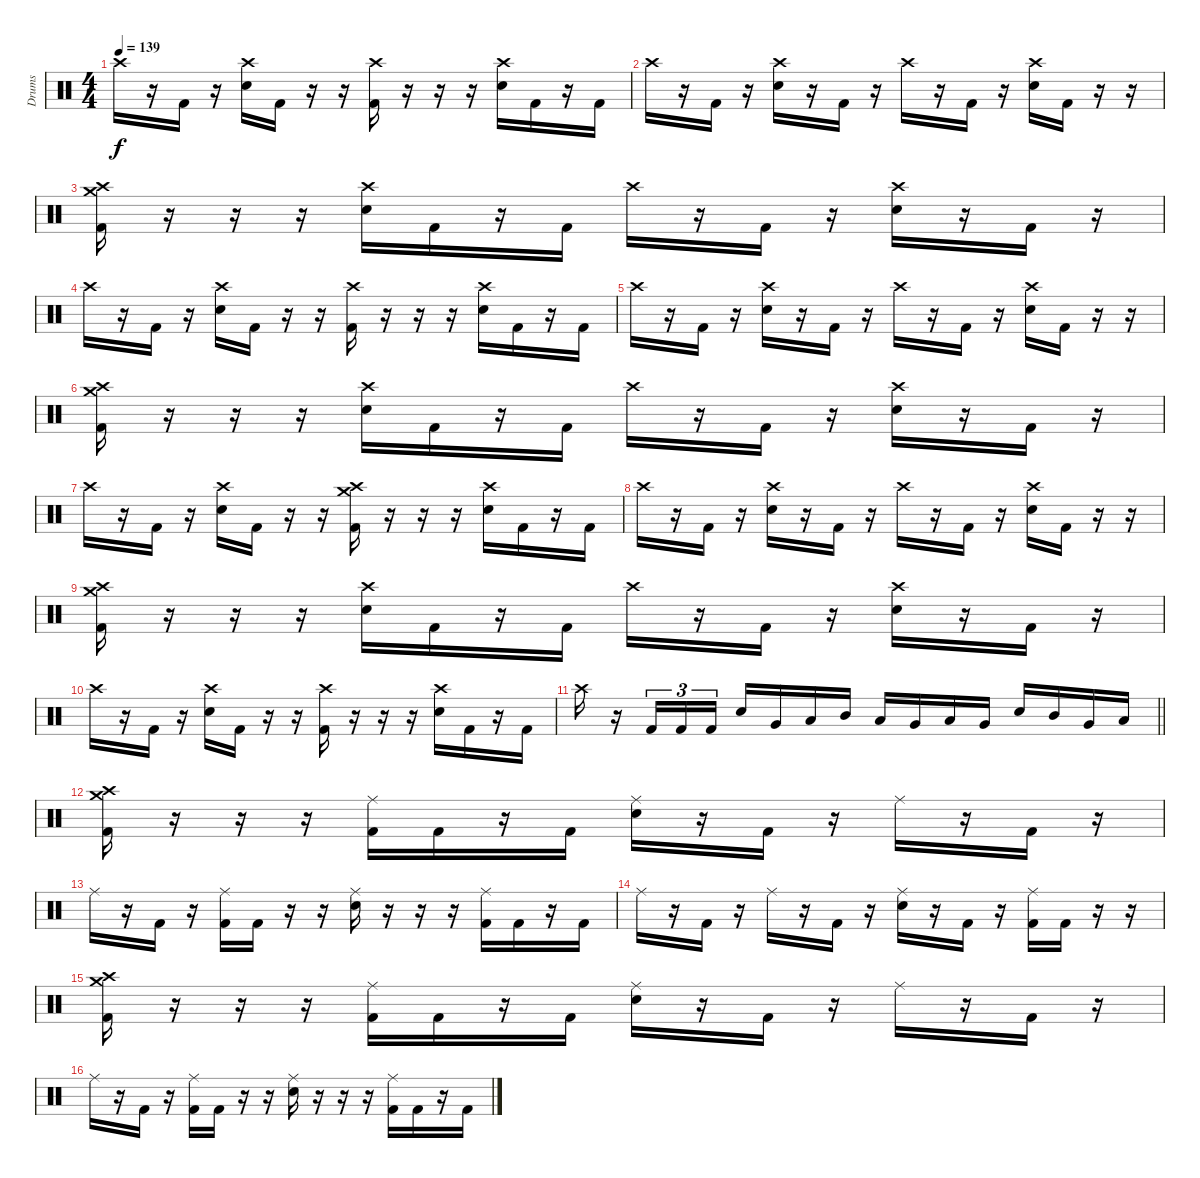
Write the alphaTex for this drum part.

\track ("Drums" "Drums") {instrument percussion}
\staff {score}
\articulation defaults
\ts (4 4)
\tempo 139
\clef neutral
\ks c "Crash high (hit)".16{dy f}
r.16 "Kick (hit) 2".16 r.16 ("Crash high (hit)" "Electric Snare (hit)").16 "Kick (hit) 2".16 r.16 r.16 ("Crash high (hit)" "Kick (hit) 2").16 r.16 r.16 r.16 ("Crash high (hit)" "Electric Snare (hit)").16 "Kick (hit) 2".16 r.16 "Kick (hit) 2".16 |
"Crash high (hit)".16 r.16 "Kick (hit) 2".16 r.16 ("Crash high (hit)" "Electric Snare (hit)").16 r.16 "Kick (hit) 2".16 r.16 "Crash high (hit)".16 r.16 "Kick (hit) 2".16 r.16 ("Crash high (hit)" "Electric Snare (hit)").16 "Kick (hit) 2".16 r.16 r.16 |
("Crash medium (hit)" "Crash high (hit)" "Kick (hit) 2").16 r.16 r.16 r.16 ("Crash high (hit)" "Electric Snare (hit)").16 "Kick (hit) 2".16 r.16 "Kick (hit) 2".16 "Crash high (hit)".16 r.16 "Kick (hit) 2".16 r.16 ("Crash high (hit)" "Electric Snare (hit)").16 r.16 "Kick (hit) 2".16 r.16 |
"Crash high (hit)".16 r.16 "Kick (hit) 2".16 r.16 ("Crash high (hit)" "Electric Snare (hit)").16 "Kick (hit) 2".16 r.16 r.16 ("Crash high (hit)" "Kick (hit) 2").16 r.16 r.16 r.16 ("Crash high (hit)" "Electric Snare (hit)").16 "Kick (hit) 2".16 r.16 "Kick (hit) 2".16 |
"Crash high (hit)".16 r.16 "Kick (hit) 2".16 r.16 ("Crash high (hit)" "Electric Snare (hit)").16 r.16 "Kick (hit) 2".16 r.16 "Crash high (hit)".16 r.16 "Kick (hit) 2".16 r.16 ("Crash high (hit)" "Electric Snare (hit)").16 "Kick (hit) 2".16 r.16 r.16 |
("Crash medium (hit)" "Crash high (hit)" "Kick (hit) 2").16 r.16 r.16 r.16 ("Crash high (hit)" "Electric Snare (hit)").16 "Kick (hit) 2".16 r.16 "Kick (hit) 2".16 "Crash high (hit)".16 r.16 "Kick (hit) 2".16 r.16 ("Crash high (hit)" "Electric Snare (hit)").16 r.16 "Kick (hit) 2".16 r.16 |
"Crash high (hit)".16 r.16 "Kick (hit) 2".16 r.16 ("Crash high (hit)" "Electric Snare (hit)").16 "Kick (hit) 2".16 r.16 r.16 ("Crash medium (hit)" "Crash high (hit)" "Kick (hit) 2").16 r.16 r.16 r.16 ("Crash high (hit)" "Electric Snare (hit)").16 "Kick (hit) 2".16 r.16 "Kick (hit) 2".16 |
"Crash high (hit)".16 r.16 "Kick (hit) 2".16 r.16 ("Crash high (hit)" "Electric Snare (hit)").16 r.16 "Kick (hit) 2".16 r.16 "Crash high (hit)".16 r.16 "Kick (hit) 2".16 r.16 ("Crash high (hit)" "Electric Snare (hit)").16 "Kick (hit) 2".16 r.16 r.16 |
("Crash medium (hit)" "Crash high (hit)" "Kick (hit) 2").16 r.16 r.16 r.16 ("Crash high (hit)" "Electric Snare (hit)").16 "Kick (hit) 2".16 r.16 "Kick (hit) 2".16 "Crash high (hit)".16 r.16 "Kick (hit) 2".16 r.16 ("Crash high (hit)" "Electric Snare (hit)").16 r.16 "Kick (hit) 2".16 r.16 |
"Crash high (hit)".16 r.16 "Kick (hit) 2".16 r.16 ("Crash high (hit)" "Electric Snare (hit)").16 "Kick (hit) 2".16 r.16 r.16 ("Crash high (hit)" "Kick (hit) 2").16 r.16 r.16 r.16 ("Crash high (hit)" "Electric Snare (hit)").16 "Kick (hit) 2".16 r.16 "Kick (hit) 2".16 |
\barLineRight lightlight "Crash high (hit)".16
r.16 "Kick (hit) 2".16{tu (3 2)} "Kick (hit) 2".16{tu (3 2)} "Kick (hit) 2".16{tu (3 2)} "Electric Snare (hit)".16 "Very Low Tom (hit)".16 "Low Tom (hit)".16 "Mid Tom (hit)".16 "Low Tom (hit)".16 "Very Low Tom (hit)".16 "Low Tom (hit)".16 "Very Low Tom (hit)".16 "Electric Snare (hit)".16 "Mid Tom (hit)".16 "Very Low Tom (hit)".16 "Low Tom (hit)".16 |
\section ("" "")
("Crash medium (hit)" "Crash high (hit)" "Kick (hit) 2").16 r.16 r.16 r.16 ("Ride (middle)" "Kick (hit) 2").16 "Kick (hit) 2".16 r.16 "Kick (hit) 2".16 ("Ride (middle)" "Electric Snare (hit)").16 r.16 "Kick (hit) 2".16 r.16 "Ride (middle)".16 r.16 "Kick (hit) 2".16 r.16 |
"Ride (middle)".16 r.16 "Kick (hit) 2".16 r.16 ("Ride (middle)" "Kick (hit) 2").16 "Kick (hit) 2".16 r.16 r.16 ("Ride (middle)" "Electric Snare (hit)").16 r.16 r.16 r.16 ("Ride (middle)" "Kick (hit) 2").16 "Kick (hit) 2".16 r.16 "Kick (hit) 2".16 |
"Ride (middle)".16 r.16 "Kick (hit) 2".16 r.16 "Ride (middle)".16 r.16 "Kick (hit) 2".16 r.16 ("Ride (middle)" "Electric Snare (hit)").16 r.16 "Kick (hit) 2".16 r.16 ("Ride (middle)" "Kick (hit) 2").16 "Kick (hit) 2".16 r.16 r.16 |
("Crash medium (hit)" "Crash high (hit)" "Kick (hit) 2").16 r.16 r.16 r.16 ("Ride (middle)" "Kick (hit) 2").16 "Kick (hit) 2".16 r.16 "Kick (hit) 2".16 ("Ride (middle)" "Electric Snare (hit)").16 r.16 "Kick (hit) 2".16 r.16 "Ride (middle)".16 r.16 "Kick (hit) 2".16 r.16 |
"Ride (middle)".16 r.16 "Kick (hit) 2".16 r.16 ("Ride (middle)" "Kick (hit) 2").16 "Kick (hit) 2".16 r.16 r.16 ("Ride (middle)" "Electric Snare (hit)").16 r.16 r.16 r.16 ("Ride (middle)" "Kick (hit) 2").16 "Kick (hit) 2".16 r.16 "Kick (hit) 2".16
